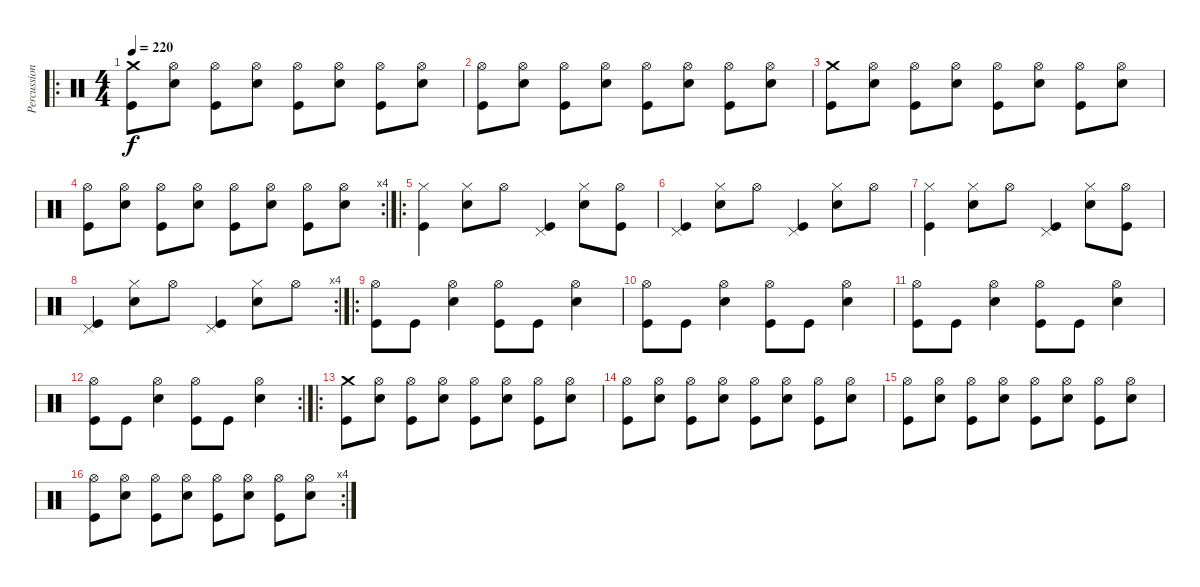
\track ("Percussion" "Percussion") {instrument percussion}
\staff {score}
\articulation defaults
\ro
\ts (4 4)
\tempo 220
\clef neutral
\ks c
("Crash medium (hit)" "Kick (hit)").8{dy f} ("Hi-Hat (open)" "Snare (hit) 2").8 ("Hi-Hat (open)" "Kick (hit)").8 ("Hi-Hat (open)" "Snare (hit) 2").8 ("Hi-Hat (open)" "Kick (hit)").8 ("Hi-Hat (open)" "Snare (hit) 2").8 ("Hi-Hat (open)" "Kick (hit)").8 ("Hi-Hat (open)" "Snare (hit) 2").8 |
("Hi-Hat (open)" "Kick (hit)").8 ("Hi-Hat (open)" "Snare (hit) 2").8 ("Hi-Hat (open)" "Kick (hit)").8 ("Hi-Hat (open)" "Snare (hit) 2").8 ("Hi-Hat (open)" "Kick (hit)").8 ("Hi-Hat (open)" "Snare (hit) 2").8 ("Hi-Hat (open)" "Kick (hit)").8 ("Hi-Hat (open)" "Snare (hit) 2").8 |
("Crash medium (hit)" "Kick (hit)").8 ("Hi-Hat (open)" "Snare (hit) 2").8 ("Hi-Hat (open)" "Kick (hit)").8 ("Hi-Hat (open)" "Snare (hit) 2").8 ("Hi-Hat (open)" "Kick (hit)").8 ("Hi-Hat (open)" "Snare (hit) 2").8 ("Hi-Hat (open)" "Kick (hit)").8 ("Hi-Hat (open)" "Snare (hit) 2").8 |
\rc 4
("Hi-Hat (open)" "Kick (hit)").8 ("Hi-Hat (open)" "Snare (hit) 2").8 ("Hi-Hat (open)" "Kick (hit)").8 ("Hi-Hat (open)" "Snare (hit) 2").8 ("Hi-Hat (open)" "Kick (hit)").8 ("Hi-Hat (open)" "Snare (hit) 2").8 ("Hi-Hat (open)" "Kick (hit)").8 ("Hi-Hat (open)" "Snare (hit) 2").8 |
\ro
("Hi-Hat (closed)" "Kick (hit)").4 ("Hi-Hat (closed)" "Snare (hit) 2").8 "Hi-Hat (open)".8 ("Pedal Hi-Hat (hit)" "Kick (hit)").4 ("Hi-Hat (closed)" "Snare (hit) 2").8 ("Hi-Hat (open)" "Kick (hit)").8 |
("Pedal Hi-Hat (hit)" "Kick (hit)").4 ("Hi-Hat (closed)" "Snare (hit) 2").8 "Hi-Hat (open)".8 ("Pedal Hi-Hat (hit)" "Kick (hit)").4 ("Hi-Hat (closed)" "Snare (hit) 2").8 "Hi-Hat (open)".8 |
("Hi-Hat (closed)" "Kick (hit)").4 ("Hi-Hat (closed)" "Snare (hit) 2").8 "Hi-Hat (open)".8 ("Pedal Hi-Hat (hit)" "Kick (hit)").4 ("Hi-Hat (closed)" "Snare (hit) 2").8 ("Hi-Hat (open)" "Kick (hit)").8 |
\rc 4
("Pedal Hi-Hat (hit)" "Kick (hit)").4 ("Hi-Hat (closed)" "Snare (hit) 2").8 "Hi-Hat (open)".8 ("Pedal Hi-Hat (hit)" "Kick (hit)").4 ("Hi-Hat (closed)" "Snare (hit) 2").8 "Hi-Hat (open)".8 |
\ro
("Hi-Hat (open)" "Kick (hit)").8 "Kick (hit)".8 ("Hi-Hat (open)" "Snare (hit) 2").4 ("Hi-Hat (open)" "Kick (hit)").8 "Kick (hit)".8 ("Hi-Hat (open)" "Snare (hit) 2").4 |
("Hi-Hat (open)" "Kick (hit)").8 "Kick (hit)".8 ("Hi-Hat (open)" "Snare (hit) 2").4 ("Hi-Hat (open)" "Kick (hit)").8 "Kick (hit)".8 ("Hi-Hat (open)" "Snare (hit) 2").4 |
("Hi-Hat (open)" "Kick (hit)").8 "Kick (hit)".8 ("Hi-Hat (open)" "Snare (hit) 2").4 ("Hi-Hat (open)" "Kick (hit)").8 "Kick (hit)".8 ("Hi-Hat (open)" "Snare (hit) 2").4 |
\rc 2
("Hi-Hat (open)" "Kick (hit)").8 "Kick (hit)".8 ("Hi-Hat (open)" "Snare (hit) 2").4 ("Hi-Hat (open)" "Kick (hit)").8 "Kick (hit)".8 ("Hi-Hat (open)" "Snare (hit) 2").4 |
\ro
("Crash medium (hit)" "Kick (hit)").8 ("Hi-Hat (open)" "Snare (hit) 2").8 ("Hi-Hat (open)" "Kick (hit)").8 ("Hi-Hat (open)" "Snare (hit) 2").8 ("Hi-Hat (open)" "Kick (hit)").8 ("Hi-Hat (open)" "Snare (hit) 2").8 ("Hi-Hat (open)" "Kick (hit)").8 ("Hi-Hat (open)" "Snare (hit) 2").8 |
("Hi-Hat (open)" "Kick (hit)").8 ("Hi-Hat (open)" "Snare (hit) 2").8 ("Hi-Hat (open)" "Kick (hit)").8 ("Hi-Hat (open)" "Snare (hit) 2").8 ("Hi-Hat (open)" "Kick (hit)").8 ("Hi-Hat (open)" "Snare (hit) 2").8 ("Hi-Hat (open)" "Kick (hit)").8 ("Hi-Hat (open)" "Snare (hit) 2").8 |
("Hi-Hat (open)" "Kick (hit)").8 ("Hi-Hat (open)" "Snare (hit) 2").8 ("Hi-Hat (open)" "Kick (hit)").8 ("Hi-Hat (open)" "Snare (hit) 2").8 ("Hi-Hat (open)" "Kick (hit)").8 ("Hi-Hat (open)" "Snare (hit) 2").8 ("Hi-Hat (open)" "Kick (hit)").8 ("Hi-Hat (open)" "Snare (hit) 2").8 |
\rc 4
("Hi-Hat (open)" "Kick (hit)").8 ("Hi-Hat (open)" "Snare (hit) 2").8 ("Hi-Hat (open)" "Kick (hit)").8 ("Hi-Hat (open)" "Snare (hit) 2").8 ("Hi-Hat (open)" "Kick (hit)").8 ("Hi-Hat (open)" "Snare (hit) 2").8 ("Hi-Hat (open)" "Kick (hit)").8 ("Hi-Hat (open)" "Snare (hit) 2").8
